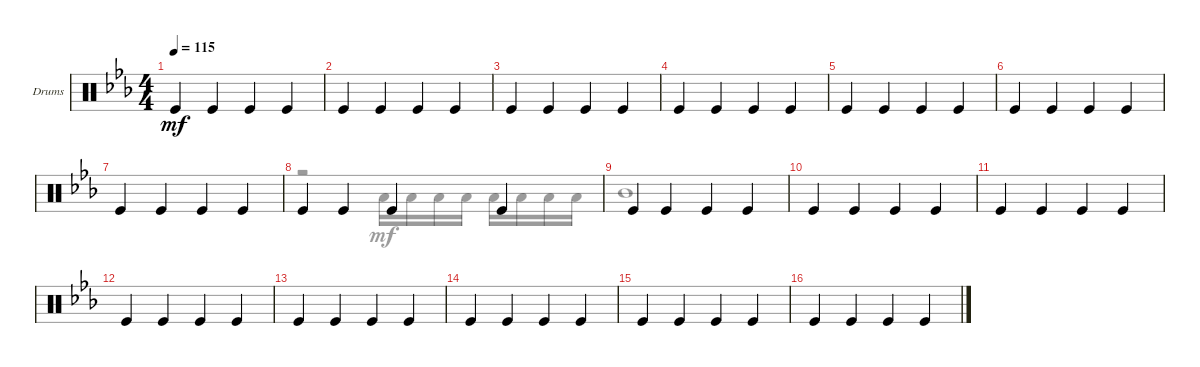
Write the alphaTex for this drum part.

\bracketExtendMode groupsimilarinstruments
\firstSystemTrackNameOrientation horizontal
\otherSystemsTrackNameOrientation horizontal
\track ("Drums" "Drums") {solo instrument percussion}
\staff {score}
\articulation defaults
\voice
\ts (4 4)
\tempo 115
\clef neutral
\ks eb "Kick (hit)".4{dy mf} "Kick (hit)".4 "Kick (hit)".4 "Kick (hit)".4
|
"Kick (hit)".4 "Kick (hit)".4 "Kick (hit)".4 "Kick (hit)".4 |
"Kick (hit)".4 "Kick (hit)".4 "Kick (hit)".4 "Kick (hit)".4 |
"Kick (hit)".4 "Kick (hit)".4 "Kick (hit)".4 "Kick (hit)".4 |
"Kick (hit)".4 "Kick (hit)".4 "Kick (hit)".4 "Kick (hit)".4 |
"Kick (hit)".4 "Kick (hit)".4 "Kick (hit)".4 "Kick (hit)".4 |
"Kick (hit)".4 "Kick (hit)".4 "Kick (hit)".4 "Kick (hit)".4 |
"Kick (hit)".4 "Kick (hit)".4 "Kick (hit)".4 "Kick (hit)".4 |
"Kick (hit)".4 "Kick (hit)".4 "Kick (hit)".4 "Kick (hit)".4 |
"Kick (hit)".4 "Kick (hit)".4 "Kick (hit)".4 "Kick (hit)".4 |
"Kick (hit)".4 "Kick (hit)".4 "Kick (hit)".4 "Kick (hit)".4 |
"Kick (hit)".4 "Kick (hit)".4 "Kick (hit)".4 "Kick (hit)".4 |
"Kick (hit)".4 "Kick (hit)".4 "Kick (hit)".4 "Kick (hit)".4 |
"Kick (hit)".4 "Kick (hit)".4 "Kick (hit)".4 "Kick (hit)".4 |
"Kick (hit)".4 "Kick (hit)".4 "Kick (hit)".4 "Kick (hit)".4 |
"Kick (hit)".4 "Kick (hit)".4 "Kick (hit)".4 "Kick (hit)".4
\voice
\clef neutral
\ottava regular
\simile none
\ks eb
|
|
|
|
|
|
|
r.2 "Low Tom (hit)".16 "Low Tom (hit)".16 "Low Tom (hit)".16 "Low Tom (hit)".16 "Low Tom (hit)".16 "Low Tom (hit)".16 "Low Tom (hit)".16 "Low Tom (hit)".16 |
"Mid Tom (hit)".1 |
|
|
|
|
|
|
